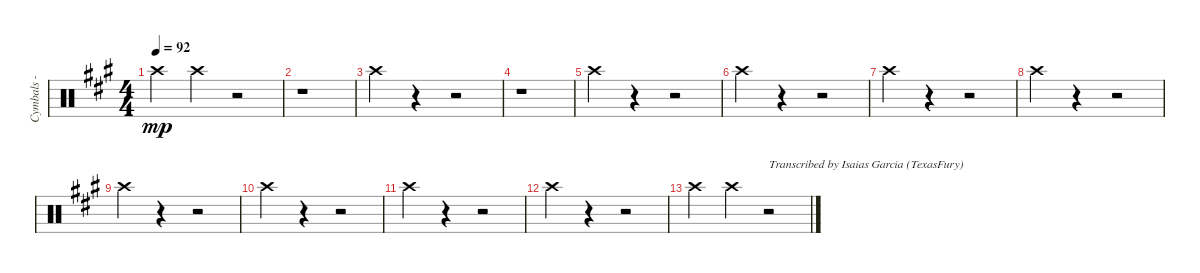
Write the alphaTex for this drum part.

\track ("Cymbals - crash" "Cymbals - ") {instrument percussion}
\staff {score}
\articulation defaults
\ts (4 4)
\tempo 92
\clef neutral
\ks f#minor "Crash high (hit)".4{dy mp} "Crash high (hit)".4
r.2 |
r.1 |
"Crash high (hit)".4 r.4 r.2 |
r.1 |
"Crash high (hit)".4 r.4 r.2 |
"Crash high (hit)".4 r.4 r.2 |
"Crash high (hit)".4 r.4 r.2 |
"Crash high (hit)".4 r.4 r.2 |
"Crash high (hit)".4 r.4 r.2 |
"Crash high (hit)".4 r.4 r.2 |
"Crash high (hit)".4 r.4 r.2 |
"Crash high (hit)".4 r.4 r.2 |
"Crash high (hit)".4 "Crash high (hit)".4 r.2{txt "Transcribed by Isaias Garcia (TexasFury)"}
